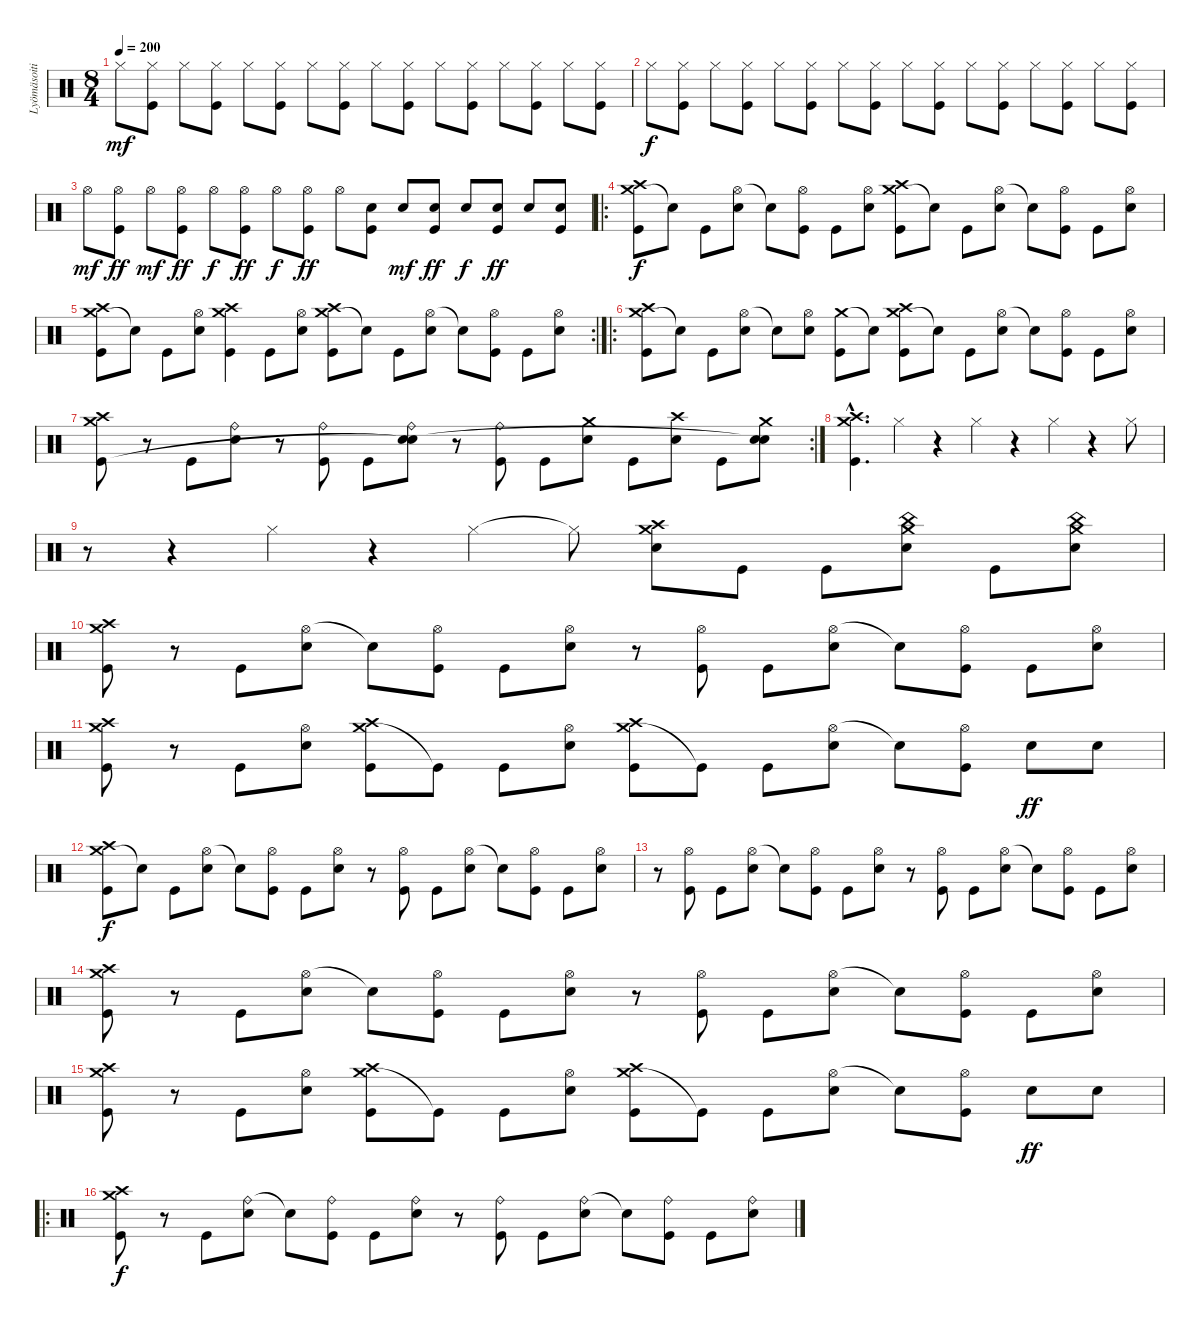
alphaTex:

\track ("Lyömäsoitin" "Lyömäsoiti") {instrument percussion}
\staff {score}
\articulation defaults
\ts (8 4)
\tempo 200
\clef neutral
\ks c "Hi-Hat (closed)".8{dy mf}
("Hi-Hat (closed)" "Kick (hit)").8 "Hi-Hat (closed)".8 ("Hi-Hat (closed)" "Kick (hit)").8 "Hi-Hat (closed)".8 ("Hi-Hat (closed)" "Kick (hit)").8 "Hi-Hat (closed)".8 ("Hi-Hat (closed)" "Kick (hit)").8 "Hi-Hat (closed)".8 ("Hi-Hat (closed)" "Kick (hit)").8 "Hi-Hat (closed)".8 ("Hi-Hat (closed)" "Kick (hit)").8 "Hi-Hat (closed)".8 ("Hi-Hat (closed)" "Kick (hit)").8 "Hi-Hat (closed)".8 ("Hi-Hat (closed)" "Kick (hit)").8 |
"Hi-Hat (closed)".8{dy f} ("Hi-Hat (closed)" "Kick (hit)").8 "Hi-Hat (closed)".8 ("Hi-Hat (closed)" "Kick (hit)").8 "Hi-Hat (closed)".8 ("Hi-Hat (closed)" "Kick (hit)").8 "Hi-Hat (closed)".8 ("Hi-Hat (closed)" "Kick (hit)").8 "Hi-Hat (closed)".8 ("Hi-Hat (closed)" "Kick (hit)").8 "Hi-Hat (closed)".8 ("Hi-Hat (closed)" "Kick (hit)").8 "Hi-Hat (closed)".8 ("Hi-Hat (closed)" "Kick (hit)").8 "Hi-Hat (closed)".8 ("Hi-Hat (closed)" "Kick (hit)").8 |
"Hi-Hat (open)".8{dy mf} ("Hi-Hat (open)" "Kick (hit)").8{dy ff} "Hi-Hat (open)".8{dy mf} ("Hi-Hat (open)" "Kick (hit)").8{dy ff} "Hi-Hat (open)".8{dy f} ("Hi-Hat (open)" "Kick (hit)").8{dy ff} "Hi-Hat (open)".8{dy f} ("Hi-Hat (open)" "Kick (hit)").8{dy ff} "Hi-Hat (open)".8 ("Snare (hit) 2" "Kick (hit)").8 "Snare (hit) 2".8{dy mf} ("Snare (hit) 2" "Kick (hit)").8{dy ff} "Snare (hit) 2".8{dy f} ("Snare (hit) 2" "Kick (hit)").8{dy ff} "Snare (hit) 2".8 ("Snare (hit) 2" "Kick (hit)").8 |
\ro
("Crash medium (hit)" "Crash high (hit)" "Kick (hit)").8{dy f} "Snare (hit)"{t}.8 "Kick (hit)".8 ("Hi-Hat (open)" "Snare (hit) 2").8 "Snare (hit)"{t}.8 ("Hi-Hat (open)" "Kick (hit)").8 "Kick (hit)".8 ("Hi-Hat (open)" "Snare (hit) 2").8 ("Crash medium (hit)" "Crash high (hit)" "Kick (hit)").8 "Snare (hit)"{t}.8 "Kick (hit)".8 ("Hi-Hat (open)" "Snare (hit) 2").8 "Snare (hit)"{t}.8 ("Hi-Hat (open)" "Kick (hit)").8 "Kick (hit)".8 ("Hi-Hat (open)" "Snare (hit) 2").8 |
\rc 2
("Crash medium (hit)" "Crash high (hit)" "Kick (hit)").8 "Snare (hit)"{t}.8 "Kick (hit)".8 ("Hi-Hat (open)" "Snare (hit) 2").8 ("Crash medium (hit)" "Crash high (hit)" "Kick (hit)").4 "Kick (hit)".8 ("Hi-Hat (open)" "Snare (hit) 2").8 ("Crash medium (hit)" "Crash high (hit)" "Kick (hit)").8 "Snare (hit)"{t}.8 "Kick (hit)".8 ("Hi-Hat (open)" "Snare (hit) 2").8 "Snare (hit)"{t}.8 ("Hi-Hat (open)" "Kick (hit)").8 "Kick (hit)".8 ("Hi-Hat (open)" "Snare (hit) 2").8 |
\ro
("Crash medium (hit)" "Crash high (hit)" "Kick (hit)").8 "Snare (hit)"{t}.8 "Kick (hit)".8 ("Hi-Hat (open)" "Snare (hit) 2").8 "Snare (hit)"{t}.8 ("Hi-Hat (open)" "Snare (hit) 2").8 ("Crash medium (hit)" "Kick (hit)").8 "Snare (hit)"{t}.8 ("Crash medium (hit)" "Crash high (hit)" "Kick (hit)").8 "Snare (hit)"{t}.8 "Kick (hit)".8 ("Hi-Hat (open)" "Snare (hit) 2").8 "Snare (hit)"{t}.8 ("Hi-Hat (open)" "Kick (hit)").8 "Kick (hit)".8 ("Hi-Hat (open)" "Snare (hit) 2").8 |
\rc 2
("Crash medium (hit)" "Crash high (hit)" "Kick (hit)").8 r.8 "Kick (hit)".8 ("Ride (bell)" "Snare (hit) 2").8 r.8 ("Ride (bell)" "Kick (hit)").8 "Kick (hit)".8 ("Ride (bell)" "Snare (hit) 2" "Snare (hit)"{t}).8 r.8 ("Ride (bell)" "Kick (hit)").8 "Kick (hit)".8 ("Crash medium (hit)" "Snare (hit) 2").8 "Kick (hit)".8 ("Crash high (hit)" "Snare (hit) 2").8 "Kick (hit)".8 ("Crash medium (hit)" "Snare (hit) 2" "Snare (hit)"{t}).8 |
("Crash medium (hit)"{hac} "Crash high (hit)"{hac} "Kick (hit)"{hac}).4{d} "Hi-Hat (closed)".4 r.4 "Hi-Hat (closed)".4 r.4 "Hi-Hat (closed)".4 r.4 "Hi-Hat (closed)".8 |
r.8 r.4 "Hi-Hat (closed)".4 r.4 "Hi-Hat (closed)".4 "Hi-Hat (closed)"{t}.8 ("Crash medium (hit)" "Crash high (hit)" "Snare (hit) 2").8 "Kick (hit)".8 "Kick (hit)".8 ("Crash medium (hit)" "China (hit)" "Snare (hit) 2").8 "Kick (hit)".8 ("Crash medium (hit)" "China (hit)" "Snare (hit) 2").8 |
("Crash medium (hit)" "Crash high (hit)" "Kick (hit)").8 r.8 "Kick (hit)".8 ("Hi-Hat (open)" "Snare (hit) 2").8 "Snare (hit)"{t}.8 ("Hi-Hat (open)" "Kick (hit)").8 "Kick (hit)".8 ("Hi-Hat (open)" "Snare (hit) 2").8 r.8 ("Hi-Hat (open)" "Kick (hit)").8 "Kick (hit)".8 ("Hi-Hat (open)" "Snare (hit) 2").8 "Snare (hit)"{t}.8 ("Hi-Hat (open)" "Kick (hit)").8 "Kick (hit)".8 ("Hi-Hat (open)" "Snare (hit) 2").8 |
("Crash medium (hit)" "Crash high (hit)" "Kick (hit)").8 r.8 "Kick (hit)".8 ("Hi-Hat (open)" "Snare (hit) 2").8 ("Crash medium (hit)" "Crash high (hit)" "Kick (hit)").8 "Kick (hit)"{t}.8 "Kick (hit)".8 ("Hi-Hat (open)" "Snare (hit) 2").8 ("Crash medium (hit)" "Crash high (hit)" "Kick (hit)").8 "Kick (hit)"{t}.8 "Kick (hit)".8 ("Hi-Hat (open)" "Snare (hit) 2").8 "Snare (hit)"{t}.8 ("Hi-Hat (open)" "Kick (hit)").8 "Snare (hit) 2".8{dy ff} "Snare (hit) 2".8 |
("Crash medium (hit)" "Crash high (hit)" "Kick (hit)").8{dy f} "Snare (hit)"{t}.8 "Kick (hit)".8 ("Hi-Hat (open)" "Snare (hit) 2").8 "Snare (hit)"{t}.8 ("Hi-Hat (open)" "Kick (hit)").8 "Kick (hit)".8 ("Hi-Hat (open)" "Snare (hit) 2").8 r.8 ("Hi-Hat (open)" "Kick (hit)").8 "Kick (hit)".8 ("Hi-Hat (open)" "Snare (hit) 2").8 "Snare (hit)"{t}.8 ("Hi-Hat (open)" "Kick (hit)").8 "Kick (hit)".8 ("Hi-Hat (open)" "Snare (hit) 2").8 |
r.8 ("Hi-Hat (open)" "Kick (hit)").8 "Kick (hit)".8 ("Hi-Hat (open)" "Snare (hit) 2").8 "Snare (hit)"{t}.8 ("Hi-Hat (open)" "Kick (hit)").8 "Kick (hit)".8 ("Hi-Hat (open)" "Snare (hit) 2").8 r.8 ("Hi-Hat (open)" "Kick (hit)").8 "Kick (hit)".8 ("Hi-Hat (open)" "Snare (hit) 2").8 "Snare (hit)"{t}.8 ("Hi-Hat (open)" "Kick (hit)").8 "Kick (hit)".8 ("Hi-Hat (open)" "Snare (hit) 2").8 |
("Crash medium (hit)" "Crash high (hit)" "Kick (hit)").8 r.8 "Kick (hit)".8 ("Hi-Hat (open)" "Snare (hit) 2").8 "Snare (hit)"{t}.8 ("Hi-Hat (open)" "Kick (hit)").8 "Kick (hit)".8 ("Hi-Hat (open)" "Snare (hit) 2").8 r.8 ("Hi-Hat (open)" "Kick (hit)").8 "Kick (hit)".8 ("Hi-Hat (open)" "Snare (hit) 2").8 "Snare (hit)"{t}.8 ("Hi-Hat (open)" "Kick (hit)").8 "Kick (hit)".8 ("Hi-Hat (open)" "Snare (hit) 2").8 |
("Crash medium (hit)" "Crash high (hit)" "Kick (hit)").8 r.8 "Kick (hit)".8 ("Hi-Hat (open)" "Snare (hit) 2").8 ("Crash medium (hit)" "Crash high (hit)" "Kick (hit)").8 "Kick (hit)"{t}.8 "Kick (hit)".8 ("Hi-Hat (open)" "Snare (hit) 2").8 ("Crash medium (hit)" "Crash high (hit)" "Kick (hit)").8 "Kick (hit)"{t}.8 "Kick (hit)".8 ("Hi-Hat (open)" "Snare (hit) 2").8 "Snare (hit)"{t}.8 ("Hi-Hat (open)" "Kick (hit)").8 "Snare (hit) 2".8{dy ff} "Snare (hit) 2".8 |
\ro
("Crash medium (hit)" "Crash high (hit)" "Kick (hit)").8{dy f} r.8 "Kick (hit)".8 ("Ride (bell)" "Snare (hit) 2").8 "Snare (hit)"{t}.8 ("Ride (bell)" "Kick (hit)").8 "Kick (hit)".8 ("Ride (bell)" "Snare (hit) 2").8 r.8 ("Ride (bell)" "Kick (hit)").8 "Kick (hit)".8 ("Ride (bell)" "Snare (hit) 2").8 "Snare (hit)"{t}.8 ("Ride (bell)" "Kick (hit)").8 "Kick (hit)".8 ("Ride (bell)" "Snare (hit) 2").8
